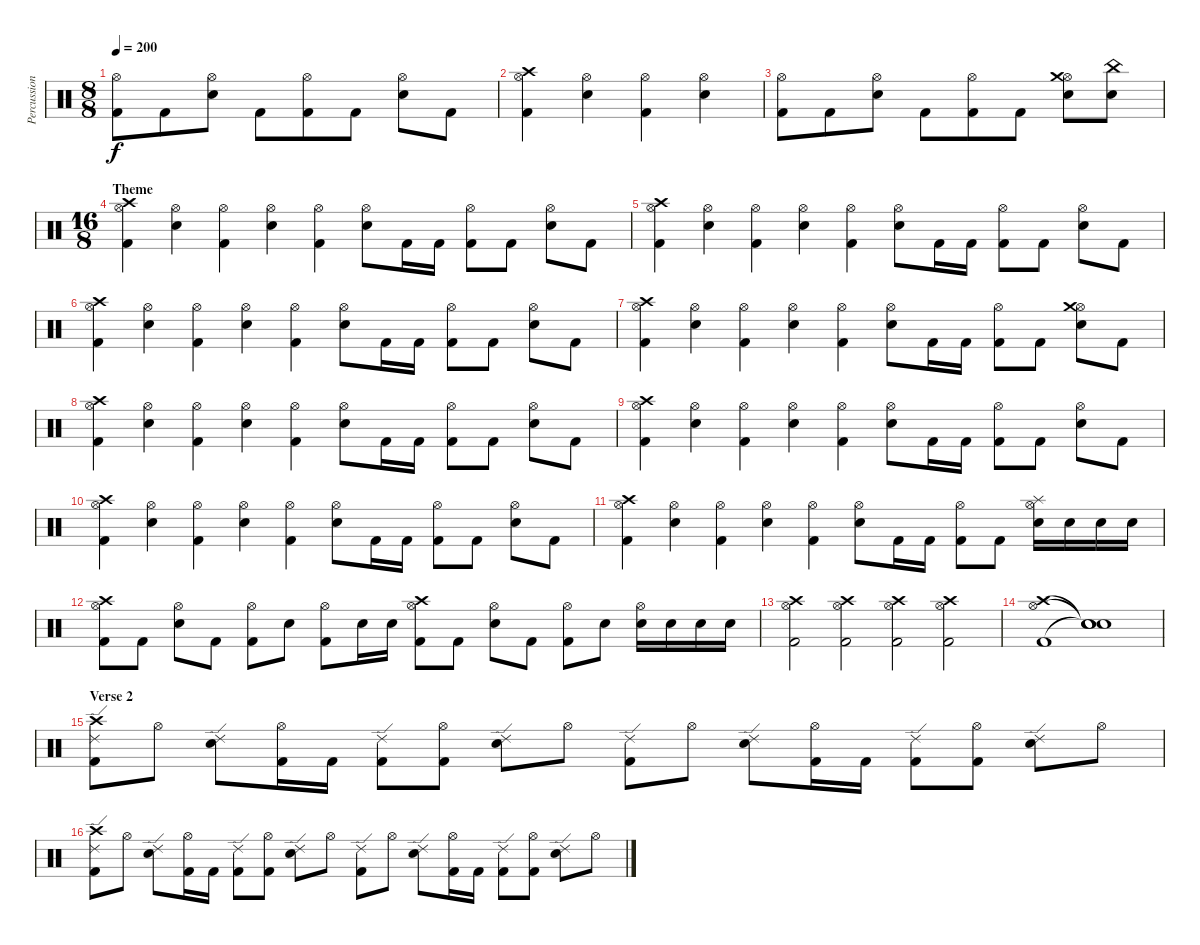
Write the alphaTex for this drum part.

\track ("Percussions" "Percussion") {instrument percussion}
\staff {score}
\articulation defaults
\ts (8 8)
\tempo 200
\clef neutral
\ks c
("Hi-Hat (open)" "Kick (hit) 2").8{dy f} "Kick (hit) 2".8 ("Hi-Hat (open)" "Electric Snare (hit)").8 "Kick (hit) 2".8 ("Hi-Hat (open)" "Kick (hit) 2").8 "Kick (hit) 2".8 ("Hi-Hat (open)" "Electric Snare (hit)").8 "Kick (hit) 2".8 |
("Crash high (hit)" "Hi-Hat (open)" "Kick (hit) 2").4 ("Hi-Hat (open)" "Electric Snare (hit)").4 ("Hi-Hat (open)" "Kick (hit) 2").4 ("Hi-Hat (open)" "Electric Snare (hit)").4 |
("Hi-Hat (open)" "Kick (hit) 2").8 "Kick (hit) 2".8 ("Hi-Hat (open)" "Electric Snare (hit)").8 "Kick (hit) 2".8 ("Hi-Hat (open)" "Kick (hit) 2").8 "Kick (hit) 2".8 ("Hi-Hat (open)" "Crash medium (hit)" "Electric Snare (hit)").8 ("China (hit)" "Electric Snare (hit)").8 |
\ts (16 8)
\section ("" "Theme")
("Hi-Hat (open)" "Crash high (hit)" "Kick (hit) 2").4 ("Hi-Hat (open)" "Electric Snare (hit)").4 ("Hi-Hat (open)" "Kick (hit) 2").4 ("Hi-Hat (open)" "Electric Snare (hit)").4 ("Hi-Hat (open)" "Kick (hit) 2").4 ("Hi-Hat (open)" "Electric Snare (hit)").8 "Kick (hit) 2".16 "Kick (hit) 2".16 ("Hi-Hat (open)" "Kick (hit) 2").8 "Kick (hit) 2".8 ("Hi-Hat (open)" "Electric Snare (hit)").8 "Kick (hit) 2".8 |
("Hi-Hat (open)" "Crash high (hit)" "Kick (hit) 2").4 ("Hi-Hat (open)" "Electric Snare (hit)").4 ("Hi-Hat (open)" "Kick (hit) 2").4 ("Hi-Hat (open)" "Electric Snare (hit)").4 ("Hi-Hat (open)" "Kick (hit) 2").4 ("Hi-Hat (open)" "Electric Snare (hit)").8 "Kick (hit) 2".16 "Kick (hit) 2".16 ("Hi-Hat (open)" "Kick (hit) 2").8 "Kick (hit) 2".8 ("Hi-Hat (open)" "Electric Snare (hit)").8 "Kick (hit) 2".8 |
("Hi-Hat (open)" "Crash high (hit)" "Kick (hit) 2").4 ("Hi-Hat (open)" "Electric Snare (hit)").4 ("Hi-Hat (open)" "Kick (hit) 2").4 ("Hi-Hat (open)" "Electric Snare (hit)").4 ("Hi-Hat (open)" "Kick (hit) 2").4 ("Hi-Hat (open)" "Electric Snare (hit)").8 "Kick (hit) 2".16 "Kick (hit) 2".16 ("Hi-Hat (open)" "Kick (hit) 2").8 "Kick (hit) 2".8 ("Hi-Hat (open)" "Electric Snare (hit)").8 "Kick (hit) 2".8 |
("Hi-Hat (open)" "Crash high (hit)" "Kick (hit) 2").4 ("Hi-Hat (open)" "Electric Snare (hit)").4 ("Hi-Hat (open)" "Kick (hit) 2").4 ("Hi-Hat (open)" "Electric Snare (hit)").4 ("Hi-Hat (open)" "Kick (hit) 2").4 ("Hi-Hat (open)" "Electric Snare (hit)").8 "Kick (hit) 2".16 "Kick (hit) 2".16 ("Hi-Hat (open)" "Kick (hit) 2").8 "Kick (hit) 2".8 ("Hi-Hat (open)" "Crash medium (hit)" "Electric Snare (hit)").8 "Kick (hit) 2".8 |
("Hi-Hat (open)" "Crash high (hit)" "Kick (hit) 2").4 ("Hi-Hat (open)" "Electric Snare (hit)").4 ("Hi-Hat (open)" "Kick (hit) 2").4 ("Hi-Hat (open)" "Electric Snare (hit)").4 ("Hi-Hat (open)" "Kick (hit) 2").4 ("Hi-Hat (open)" "Electric Snare (hit)").8 "Kick (hit) 2".16 "Kick (hit) 2".16 ("Hi-Hat (open)" "Kick (hit) 2").8 "Kick (hit) 2".8 ("Hi-Hat (open)" "Electric Snare (hit)").8 "Kick (hit) 2".8 |
("Hi-Hat (open)" "Crash high (hit)" "Kick (hit) 2").4 ("Hi-Hat (open)" "Electric Snare (hit)").4 ("Hi-Hat (open)" "Kick (hit) 2").4 ("Hi-Hat (open)" "Electric Snare (hit)").4 ("Hi-Hat (open)" "Kick (hit) 2").4 ("Hi-Hat (open)" "Electric Snare (hit)").8 "Kick (hit) 2".16 "Kick (hit) 2".16 ("Hi-Hat (open)" "Kick (hit) 2").8 "Kick (hit) 2".8 ("Hi-Hat (open)" "Electric Snare (hit)").8 "Kick (hit) 2".8 |
("Hi-Hat (open)" "Crash high (hit)" "Kick (hit) 2").4 ("Hi-Hat (open)" "Electric Snare (hit)").4 ("Hi-Hat (open)" "Kick (hit) 2").4 ("Hi-Hat (open)" "Electric Snare (hit)").4 ("Hi-Hat (open)" "Kick (hit) 2").4 ("Hi-Hat (open)" "Electric Snare (hit)").8 "Kick (hit) 2".16 "Kick (hit) 2".16 ("Hi-Hat (open)" "Kick (hit) 2").8 "Kick (hit) 2".8 ("Hi-Hat (open)" "Electric Snare (hit)").8 "Kick (hit) 2".8 |
("Hi-Hat (open)" "Crash high (hit)" "Kick (hit) 2").4 ("Hi-Hat (open)" "Electric Snare (hit)").4 ("Hi-Hat (open)" "Kick (hit) 2").4 ("Hi-Hat (open)" "Electric Snare (hit)").4 ("Hi-Hat (open)" "Kick (hit) 2").4 ("Hi-Hat (open)" "Electric Snare (hit)").8 "Kick (hit) 2".16 "Kick (hit) 2".16 ("Hi-Hat (open)" "Kick (hit) 2").8 "Kick (hit) 2".8 ("Hi-Hat (open)" "Splash (hit)" "Electric Snare (hit)").16 "Electric Snare (hit)".16 "Electric Snare (hit)".16 "Electric Snare (hit)".16 |
("Crash high (hit)" "Hi-Hat (open)" "Kick (hit) 2").8 "Kick (hit) 2".8 ("Hi-Hat (open)" "Electric Snare (hit)").8 "Kick (hit) 2".8 ("Hi-Hat (open)" "Kick (hit) 2").8 "Electric Snare (hit)".8 ("Hi-Hat (open)" "Kick (hit) 2").8 "Electric Snare (hit)".16 "Electric Snare (hit)".16 ("Hi-Hat (open)" "Crash high (hit)" "Kick (hit) 2").8 "Kick (hit) 2".8 ("Hi-Hat (open)" "Electric Snare (hit)").8 "Kick (hit) 2".8 ("Hi-Hat (open)" "Kick (hit) 2").8 "Electric Snare (hit)".8 ("Hi-Hat (open)" "Electric Snare (hit)").16 "Electric Snare (hit)".16 "Electric Snare (hit)".16 "Electric Snare (hit)".16 |
("Crash high (hit)" "Hi-Hat (open)" "Kick (hit) 2").2 ("Crash high (hit)" "Hi-Hat (open)" "Kick (hit) 2").2 ("Crash high (hit)" "Hi-Hat (open)" "Kick (hit) 2").2 ("Crash high (hit)" "Hi-Hat (open)" "Kick (hit) 2").2 |
("Crash high (hit)" "Hi-Hat (open)" "Kick (hit) 2").1 ("Snare (hit)"{t} "Snare (hit)"{t} "Snare (hit)"{t}).1 |
\section ("" "Verse 2")
("Ride (edge) 2" "Crash high (hit)" "Kick (hit) 2").8 "Hi-Hat (open)".8 ("Ride (edge) 2" "Electric Snare (hit)").8 ("Hi-Hat (open)" "Kick (hit) 2").16 "Kick (hit) 2".16 ("Ride (edge) 2" "Kick (hit) 2").8 ("Hi-Hat (open)" "Kick (hit) 2").8 ("Ride (edge) 2" "Electric Snare (hit)").8 "Hi-Hat (open)".8 ("Ride (edge) 2" "Kick (hit) 2").8 "Hi-Hat (open)".8 ("Ride (edge) 2" "Electric Snare (hit)").8 ("Hi-Hat (open)" "Kick (hit) 2").16 "Kick (hit) 2".16 ("Ride (edge) 2" "Kick (hit) 2").8 ("Hi-Hat (open)" "Kick (hit) 2").8 ("Ride (edge) 2" "Electric Snare (hit)").8 "Hi-Hat (open)".8 |
("Ride (edge) 2" "Crash high (hit)" "Kick (hit) 2").8 "Hi-Hat (open)".8 ("Ride (edge) 2" "Electric Snare (hit)").8 ("Hi-Hat (open)" "Kick (hit) 2").16 "Kick (hit) 2".16 ("Ride (edge) 2" "Kick (hit) 2").8 ("Hi-Hat (open)" "Kick (hit) 2").8 ("Ride (edge) 2" "Electric Snare (hit)").8 "Hi-Hat (open)".8 ("Ride (edge) 2" "Kick (hit) 2").8 "Hi-Hat (open)".8 ("Ride (edge) 2" "Electric Snare (hit)").8 ("Hi-Hat (open)" "Kick (hit) 2").16 "Kick (hit) 2".16 ("Ride (edge) 2" "Kick (hit) 2").8 ("Hi-Hat (open)" "Kick (hit) 2").8 ("Ride (edge) 2" "Electric Snare (hit)").8 "Hi-Hat (open)".8
